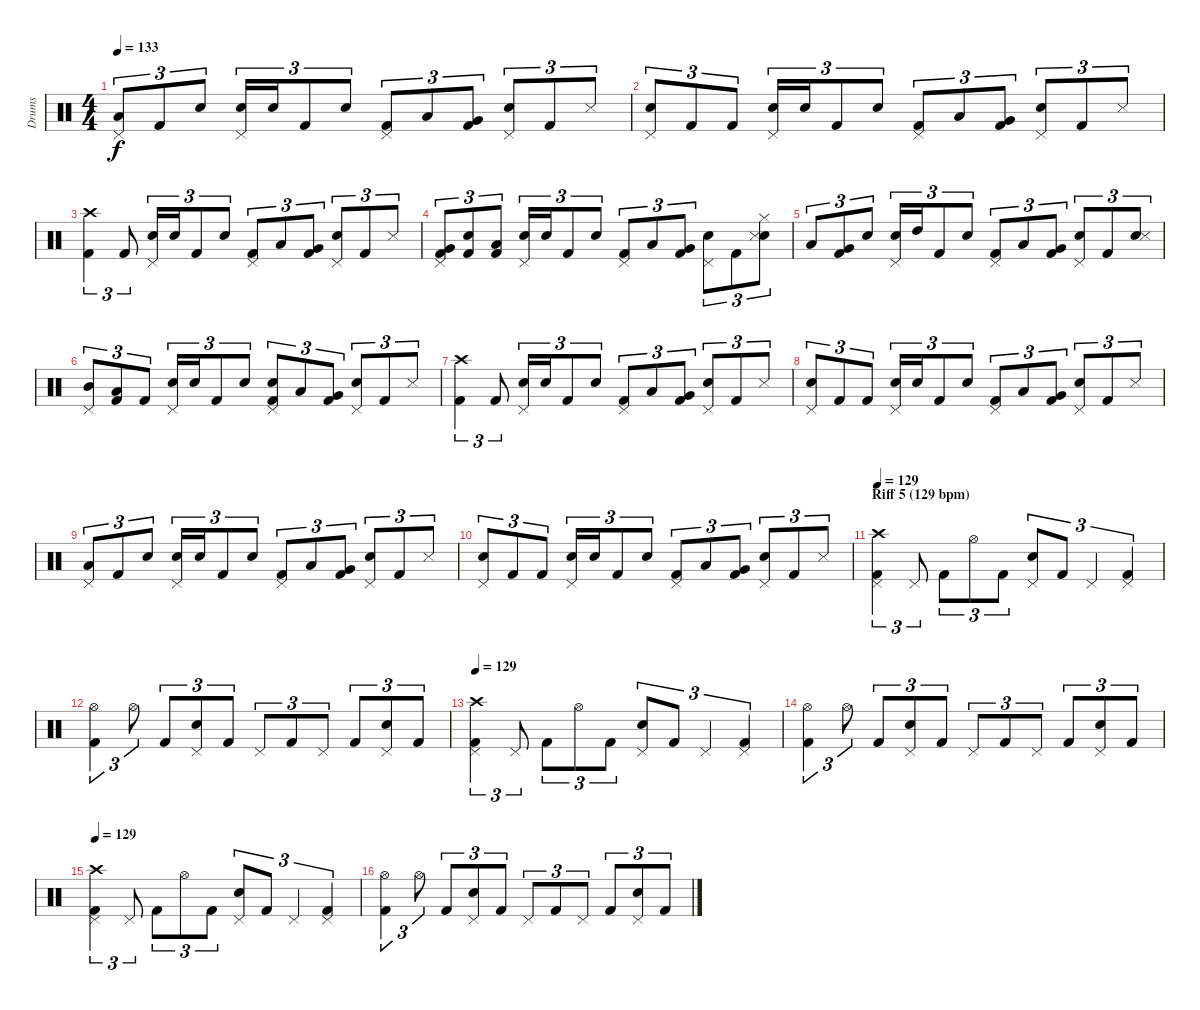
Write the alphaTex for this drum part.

\track ("Drums" "Drums") {instrument percussion}
\staff {score}
\articulation defaults
\ts (4 4)
\tempo 133
\clef neutral
\ks c
("Low Tom (hit)" "Pedal Hi-Hat (hit)").8{tu (3 2) dy f} "Kick (hit) 2".8{tu (3 2)} "Snare (hit) 2".8{tu (3 2)} ("Snare (hit) 2" "Pedal Hi-Hat (hit)").16{tu (3 2)} "Snare (hit) 2".16{tu (3 2)} "Kick (hit) 2".8{tu (3 2)} "Snare (hit) 2".8{tu (3 2)} ("Kick (hit) 2" "Pedal Hi-Hat (hit)").8{tu (3 2)} "Low Tom (hit)".8{tu (3 2)} ("Kick (hit) 2" "Very Low Tom (hit)").8{tu (3 2)} ("Snare (hit) 2" "Pedal Hi-Hat (hit)").8{tu (3 2)} "Kick (hit) 2".8{tu (3 2)} "Snare (side stick) 3".8{tu (3 2)} |
("Snare (hit) 2" "Pedal Hi-Hat (hit)").8{tu (3 2)} "Kick (hit) 2".8{tu (3 2)} "Kick (hit) 2".8{tu (3 2)} ("Snare (hit) 2" "Pedal Hi-Hat (hit)").16{tu (3 2)} "Snare (hit) 2".16{tu (3 2)} "Kick (hit) 2".8{tu (3 2)} "Snare (hit) 2".8{tu (3 2)} ("Kick (hit) 2" "Pedal Hi-Hat (hit)").8{tu (3 2)} "Low Tom (hit)".8{tu (3 2)} ("Kick (hit) 2" "Very Low Tom (hit)").8{tu (3 2)} ("Snare (hit) 2" "Pedal Hi-Hat (hit)").8{tu (3 2)} "Kick (hit) 2".8{tu (3 2)} "Snare (side stick) 3".8{tu (3 2)} |
("Kick (hit) 2" "Crash high (hit)").4{tu (3 2)} "Kick (hit) 2".8{tu (3 2)} ("Snare (hit) 2" "Pedal Hi-Hat (hit)").16{tu (3 2)} "Snare (hit) 2".16{tu (3 2)} "Kick (hit) 2".8{tu (3 2)} "Snare (hit) 2".8{tu (3 2)} ("Kick (hit) 2" "Pedal Hi-Hat (hit)").8{tu (3 2)} "Low Tom (hit)".8{tu (3 2)} ("Kick (hit) 2" "Very Low Tom (hit)").8{tu (3 2)} ("Snare (hit) 2" "Pedal Hi-Hat (hit)").8{tu (3 2)} "Kick (hit) 2".8{tu (3 2)} "Snare (side stick) 3".8{tu (3 2)} |
("Kick (hit) 2" "Very Low Tom (hit)" "Pedal Hi-Hat (hit)").8{tu (3 2)} ("Kick (hit) 2" "Snare (hit) 2").8{tu (3 2)} ("Kick (hit) 2" "Low Tom (hit)").8{tu (3 2)} ("Snare (hit) 2" "Pedal Hi-Hat (hit)").16{tu (3 2)} "Snare (hit) 2".16{tu (3 2)} "Kick (hit) 2".8{tu (3 2)} "Snare (hit) 2".8{tu (3 2)} ("Kick (hit) 2" "Pedal Hi-Hat (hit)").8{tu (3 2)} "Low Tom (hit)".8{tu (3 2)} ("Kick (hit) 2" "Very Low Tom (hit)").8{tu (3 2)} ("Snare (hit) 2" "Pedal Hi-Hat (hit)").8{tu (3 2)} "Kick (hit) 2".8{tu (3 2)} ("Snare (hit) 2" "Snare (side stick) 3" "Hi-Hat (closed)").8{tu (3 2)} |
"Low Tom (hit)".8{tu (3 2)} ("Kick (hit) 2" "Very Low Tom (hit)").8{tu (3 2)} "Snare (hit) 2".8{tu (3 2)} ("Snare (hit) 2" "Pedal Hi-Hat (hit)").16{tu (3 2)} "High Tom (hit)".16{tu (3 2)} "Kick (hit) 2".8{tu (3 2)} "Snare (hit) 2".8{tu (3 2)} ("Kick (hit) 2" "Pedal Hi-Hat (hit)").8{tu (3 2)} "Low Tom (hit)".8{tu (3 2)} ("Kick (hit) 2" "Very Low Tom (hit)").8{tu (3 2)} ("Snare (hit) 2" "Pedal Hi-Hat (hit)").8{tu (3 2)} "Kick (hit) 2".8{tu (3 2)} ("Snare (hit) 2" "Snare (side stick) 3").8{tu (3 2)} |
("Mid Tom (hit)" "Pedal Hi-Hat (hit)").8{tu (3 2)} ("Kick (hit) 2" "Low Tom (hit)").8{tu (3 2)} "Kick (hit) 2".8{tu (3 2)} ("Snare (hit) 2" "Pedal Hi-Hat (hit)").16{tu (3 2)} "Snare (hit) 2".16{tu (3 2)} "Kick (hit) 2".8{tu (3 2)} "Snare (hit) 2".8{tu (3 2)} ("Kick (hit) 2" "Snare (hit) 2" "Pedal Hi-Hat (hit)").8{tu (3 2)} "Low Tom (hit)".8{tu (3 2)} ("Kick (hit) 2" "Very Low Tom (hit)").8{tu (3 2)} ("Snare (hit) 2" "Pedal Hi-Hat (hit)").8{tu (3 2)} "Kick (hit) 2".8{tu (3 2)} "Snare (side stick) 3".8{tu (3 2)} |
("Kick (hit) 2" "Crash high (hit)").4{tu (3 2)} "Kick (hit) 2".8{tu (3 2)} ("Snare (hit) 2" "Pedal Hi-Hat (hit)").16{tu (3 2)} "Snare (hit) 2".16{tu (3 2)} "Kick (hit) 2".8{tu (3 2)} "Snare (hit) 2".8{tu (3 2)} ("Kick (hit) 2" "Pedal Hi-Hat (hit)").8{tu (3 2)} "Low Tom (hit)".8{tu (3 2)} ("Kick (hit) 2" "Very Low Tom (hit)").8{tu (3 2)} ("Snare (hit) 2" "Pedal Hi-Hat (hit)").8{tu (3 2)} "Kick (hit) 2".8{tu (3 2)} "Snare (side stick) 3".8{tu (3 2)} |
("Snare (hit) 2" "Pedal Hi-Hat (hit)").8{tu (3 2)} "Kick (hit) 2".8{tu (3 2)} "Kick (hit) 2".8{tu (3 2)} ("Snare (hit) 2" "Pedal Hi-Hat (hit)").16{tu (3 2)} "Snare (hit) 2".16{tu (3 2)} "Kick (hit) 2".8{tu (3 2)} "Snare (hit) 2".8{tu (3 2)} ("Kick (hit) 2" "Pedal Hi-Hat (hit)").8{tu (3 2)} "Low Tom (hit)".8{tu (3 2)} ("Kick (hit) 2" "Very Low Tom (hit)").8{tu (3 2)} ("Snare (hit) 2" "Pedal Hi-Hat (hit)").8{tu (3 2)} "Kick (hit) 2".8{tu (3 2)} "Snare (side stick) 3".8{tu (3 2)} |
("Low Tom (hit)" "Pedal Hi-Hat (hit)").8{tu (3 2)} "Kick (hit) 2".8{tu (3 2)} "Snare (hit) 2".8{tu (3 2)} ("Snare (hit) 2" "Pedal Hi-Hat (hit)").16{tu (3 2)} "Snare (hit) 2".16{tu (3 2)} "Kick (hit) 2".8{tu (3 2)} "Snare (hit) 2".8{tu (3 2)} ("Kick (hit) 2" "Pedal Hi-Hat (hit)").8{tu (3 2)} "Low Tom (hit)".8{tu (3 2)} ("Kick (hit) 2" "Very Low Tom (hit)").8{tu (3 2)} ("Snare (hit) 2" "Pedal Hi-Hat (hit)").8{tu (3 2)} "Kick (hit) 2".8{tu (3 2)} "Snare (side stick) 3".8{tu (3 2)} |
("Snare (hit) 2" "Pedal Hi-Hat (hit)").8{tu (3 2)} "Kick (hit) 2".8{tu (3 2)} "Kick (hit) 2".8{tu (3 2)} ("Snare (hit) 2" "Pedal Hi-Hat (hit)").16{tu (3 2)} "Snare (hit) 2".16{tu (3 2)} "Kick (hit) 2".8{tu (3 2)} "Snare (hit) 2".8{tu (3 2)} ("Kick (hit) 2" "Pedal Hi-Hat (hit)").8{tu (3 2)} "Low Tom (hit)".8{tu (3 2)} ("Kick (hit) 2" "Very Low Tom (hit)").8{tu (3 2)} ("Snare (hit) 2" "Pedal Hi-Hat (hit)").8{tu (3 2)} "Kick (hit) 2".8{tu (3 2)} "Snare (side stick) 3".8{tu (3 2)} |
\section ("" "Riff 5 (129 bpm)")
\tempo 129
("Kick (hit) 2" "Pedal Hi-Hat (hit)" "Crash high (hit)").4{tu (3 2)} "Pedal Hi-Hat (hit)".8{tu (3 2)} "Kick (hit) 2".8{tu (3 2)} "Hi-Hat (open)".8{tu (3 2)} "Kick (hit) 2".8{tu (3 2)} ("Snare (hit) 2" "Pedal Hi-Hat (hit)").8{tu (3 2)} "Kick (hit) 2".8{tu (3 2)} "Pedal Hi-Hat (hit)".4{tu (3 2)} ("Kick (hit) 2" "Pedal Hi-Hat (hit)").4{tu (3 2)} |
("Kick (hit) 2" "Hi-Hat (open)").4{tu (3 2)} "Hi-Hat (open)".8{tu (3 2)} "Kick (hit) 2".8{tu (3 2)} ("Snare (hit) 2" "Pedal Hi-Hat (hit)").8{tu (3 2)} "Kick (hit) 2".8{tu (3 2)} "Pedal Hi-Hat (hit)".8{tu (3 2)} "Kick (hit) 2".8{tu (3 2)} "Pedal Hi-Hat (hit)".8{tu (3 2)} "Kick (hit) 2".8{tu (3 2)} ("Snare (hit) 2" "Pedal Hi-Hat (hit)").8{tu (3 2)} "Kick (hit) 2".8{tu (3 2)} |
\tempo 129
("Kick (hit) 2" "Pedal Hi-Hat (hit)" "Crash high (hit)").4{tu (3 2)} "Pedal Hi-Hat (hit)".8{tu (3 2)} "Kick (hit) 2".8{tu (3 2)} "Hi-Hat (open)".8{tu (3 2)} "Kick (hit) 2".8{tu (3 2)} ("Snare (hit) 2" "Pedal Hi-Hat (hit)").8{tu (3 2)} "Kick (hit) 2".8{tu (3 2)} "Pedal Hi-Hat (hit)".4{tu (3 2)} ("Kick (hit) 2" "Pedal Hi-Hat (hit)").4{tu (3 2)} |
("Kick (hit) 2" "Hi-Hat (open)").4{tu (3 2)} "Hi-Hat (open)".8{tu (3 2)} "Kick (hit) 2".8{tu (3 2)} ("Snare (hit) 2" "Pedal Hi-Hat (hit)").8{tu (3 2)} "Kick (hit) 2".8{tu (3 2)} "Pedal Hi-Hat (hit)".8{tu (3 2)} "Kick (hit) 2".8{tu (3 2)} "Pedal Hi-Hat (hit)".8{tu (3 2)} "Kick (hit) 2".8{tu (3 2)} ("Snare (hit) 2" "Pedal Hi-Hat (hit)").8{tu (3 2)} "Kick (hit) 2".8{tu (3 2)} |
\tempo 129
("Kick (hit) 2" "Pedal Hi-Hat (hit)" "Crash high (hit)").4{tu (3 2)} "Pedal Hi-Hat (hit)".8{tu (3 2)} "Kick (hit) 2".8{tu (3 2)} "Hi-Hat (open)".8{tu (3 2)} "Kick (hit) 2".8{tu (3 2)} ("Snare (hit) 2" "Pedal Hi-Hat (hit)").8{tu (3 2)} "Kick (hit) 2".8{tu (3 2)} "Pedal Hi-Hat (hit)".4{tu (3 2)} ("Kick (hit) 2" "Pedal Hi-Hat (hit)").4{tu (3 2)} |
("Kick (hit) 2" "Hi-Hat (open)").4{tu (3 2)} "Hi-Hat (open)".8{tu (3 2)} "Kick (hit) 2".8{tu (3 2)} ("Snare (hit) 2" "Pedal Hi-Hat (hit)").8{tu (3 2)} "Kick (hit) 2".8{tu (3 2)} "Pedal Hi-Hat (hit)".8{tu (3 2)} "Kick (hit) 2".8{tu (3 2)} "Pedal Hi-Hat (hit)".8{tu (3 2)} "Kick (hit) 2".8{tu (3 2)} ("Snare (hit) 2" "Pedal Hi-Hat (hit)").8{tu (3 2)} "Kick (hit) 2".8{tu (3 2)}
